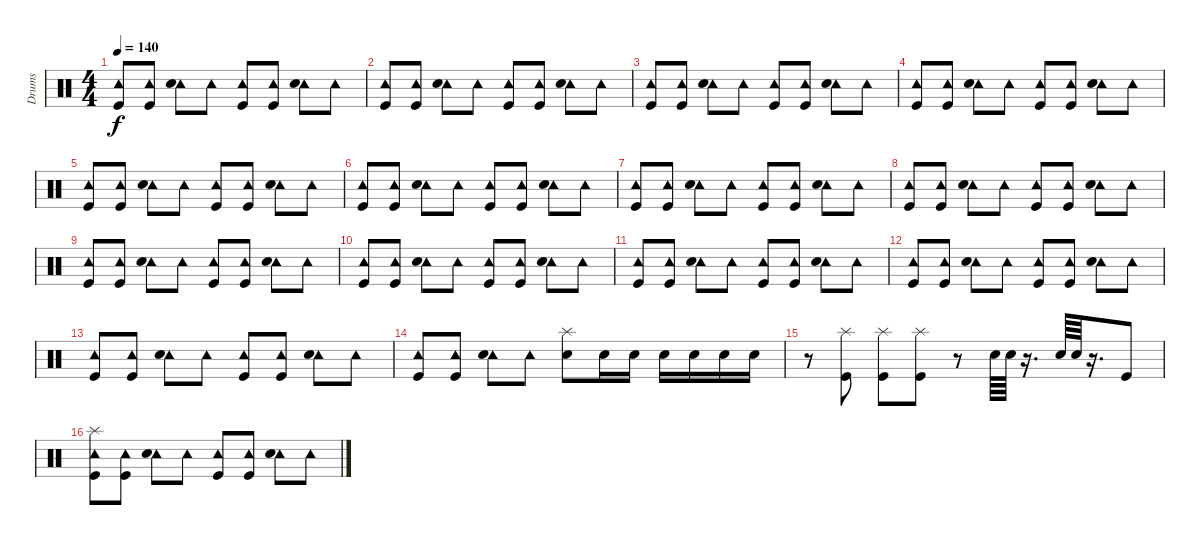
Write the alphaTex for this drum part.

\track ("Drums" "Drums") {instrument percussion}
\staff {score}
\articulation defaults
\ts (4 4)
\tempo 140
\clef neutral
\ks c
("Tambourine (hit)" "Kick (hit)").8{dy f} ("Tambourine (hit)" "Kick (hit)").8 ("Tambourine (hit)" "Snare (hit) 2").8 "Tambourine (hit)".8 ("Tambourine (hit)" "Kick (hit)").8 ("Tambourine (hit)" "Kick (hit)").8 ("Tambourine (hit)" "Snare (hit) 2").8 "Tambourine (hit)".8 |
("Tambourine (hit)" "Kick (hit)").8 ("Tambourine (hit)" "Kick (hit)").8 ("Tambourine (hit)" "Snare (hit) 2").8 "Tambourine (hit)".8 ("Tambourine (hit)" "Kick (hit)").8 ("Tambourine (hit)" "Kick (hit)").8 ("Tambourine (hit)" "Snare (hit) 2").8 "Tambourine (hit)".8 |
("Tambourine (hit)" "Kick (hit)").8 ("Tambourine (hit)" "Kick (hit)").8 ("Tambourine (hit)" "Snare (hit) 2").8 "Tambourine (hit)".8 ("Tambourine (hit)" "Kick (hit)").8 ("Tambourine (hit)" "Kick (hit)").8 ("Tambourine (hit)" "Snare (hit) 2").8 "Tambourine (hit)".8 |
("Tambourine (hit)" "Kick (hit)").8 ("Tambourine (hit)" "Kick (hit)").8 ("Tambourine (hit)" "Snare (hit) 2").8 "Tambourine (hit)".8 ("Tambourine (hit)" "Kick (hit)").8 ("Tambourine (hit)" "Kick (hit)").8 ("Tambourine (hit)" "Snare (hit) 2").8 "Tambourine (hit)".8 |
("Tambourine (hit)" "Kick (hit)").8 ("Tambourine (hit)" "Kick (hit)").8 ("Tambourine (hit)" "Snare (hit) 2").8 "Tambourine (hit)".8 ("Tambourine (hit)" "Kick (hit)").8 ("Tambourine (hit)" "Kick (hit)").8 ("Tambourine (hit)" "Snare (hit) 2").8 "Tambourine (hit)".8 |
("Tambourine (hit)" "Kick (hit)").8 ("Tambourine (hit)" "Kick (hit)").8 ("Tambourine (hit)" "Snare (hit) 2").8 "Tambourine (hit)".8 ("Tambourine (hit)" "Kick (hit)").8 ("Tambourine (hit)" "Kick (hit)").8 ("Tambourine (hit)" "Snare (hit) 2").8 "Tambourine (hit)".8 |
("Tambourine (hit)" "Kick (hit)").8 ("Tambourine (hit)" "Kick (hit)").8 ("Tambourine (hit)" "Snare (hit) 2").8 "Tambourine (hit)".8 ("Tambourine (hit)" "Kick (hit)").8 ("Tambourine (hit)" "Kick (hit)").8 ("Tambourine (hit)" "Snare (hit) 2").8 "Tambourine (hit)".8 |
("Tambourine (hit)" "Kick (hit)").8 ("Tambourine (hit)" "Kick (hit)").8 ("Tambourine (hit)" "Snare (hit) 2").8 "Tambourine (hit)".8 ("Tambourine (hit)" "Kick (hit)").8 ("Tambourine (hit)" "Kick (hit)").8 ("Tambourine (hit)" "Snare (hit) 2").8 "Tambourine (hit)".8 |
("Tambourine (hit)" "Kick (hit)").8 ("Tambourine (hit)" "Kick (hit)").8 ("Tambourine (hit)" "Snare (hit) 2").8 "Tambourine (hit)".8 ("Tambourine (hit)" "Kick (hit)").8 ("Tambourine (hit)" "Kick (hit)").8 ("Tambourine (hit)" "Snare (hit) 2").8 "Tambourine (hit)".8 |
("Tambourine (hit)" "Kick (hit)").8 ("Tambourine (hit)" "Kick (hit)").8 ("Tambourine (hit)" "Snare (hit) 2").8 "Tambourine (hit)".8 ("Tambourine (hit)" "Kick (hit)").8 ("Tambourine (hit)" "Kick (hit)").8 ("Tambourine (hit)" "Snare (hit) 2").8 "Tambourine (hit)".8 |
("Tambourine (hit)" "Kick (hit)").8 ("Tambourine (hit)" "Kick (hit)").8 ("Tambourine (hit)" "Snare (hit) 2").8 "Tambourine (hit)".8 ("Tambourine (hit)" "Kick (hit)").8 ("Tambourine (hit)" "Kick (hit)").8 ("Tambourine (hit)" "Snare (hit) 2").8 "Tambourine (hit)".8 |
("Tambourine (hit)" "Kick (hit)").8 ("Tambourine (hit)" "Kick (hit)").8 ("Tambourine (hit)" "Snare (hit) 2").8 "Tambourine (hit)".8 ("Tambourine (hit)" "Kick (hit)").8 ("Tambourine (hit)" "Kick (hit)").8 ("Tambourine (hit)" "Snare (hit) 2").8 "Tambourine (hit)".8 |
("Tambourine (hit)" "Kick (hit)").8 ("Tambourine (hit)" "Kick (hit)").8 ("Tambourine (hit)" "Snare (hit) 2").8 "Tambourine (hit)".8 ("Tambourine (hit)" "Kick (hit)").8 ("Tambourine (hit)" "Kick (hit)").8 ("Tambourine (hit)" "Snare (hit) 2").8 "Tambourine (hit)".8 |
("Tambourine (hit)" "Kick (hit)").8 ("Tambourine (hit)" "Kick (hit)").8 ("Tambourine (hit)" "Snare (hit) 2").8 "Tambourine (hit)".8 ("Snare (hit) 2" "Splash (hit)").8 "Snare (hit) 2".16 "Snare (hit) 2".16 "Snare (hit) 2".16 "Snare (hit) 2".16 "Snare (hit) 2".16 "Snare (hit) 2".16 |
r.8 ("Kick (hit)" "Splash (hit)").8 ("Kick (hit)" "Splash (hit)").8 ("Kick (hit)" "Splash (hit)").8 r.8 "Snare (hit) 2".64 "Snare (hit) 2".64 r.16{d} "Snare (hit) 2".64 "Snare (hit) 2".64 r.16{d} "Kick (hit)".8 |
("Tambourine (hit)" "Kick (hit)" "Splash (hit)").8 ("Tambourine (hit)" "Kick (hit)").8 ("Tambourine (hit)" "Snare (hit) 2").8 "Tambourine (hit)".8 ("Tambourine (hit)" "Kick (hit)").8 ("Tambourine (hit)" "Kick (hit)").8 ("Tambourine (hit)" "Snare (hit) 2").8 "Tambourine (hit)".8
